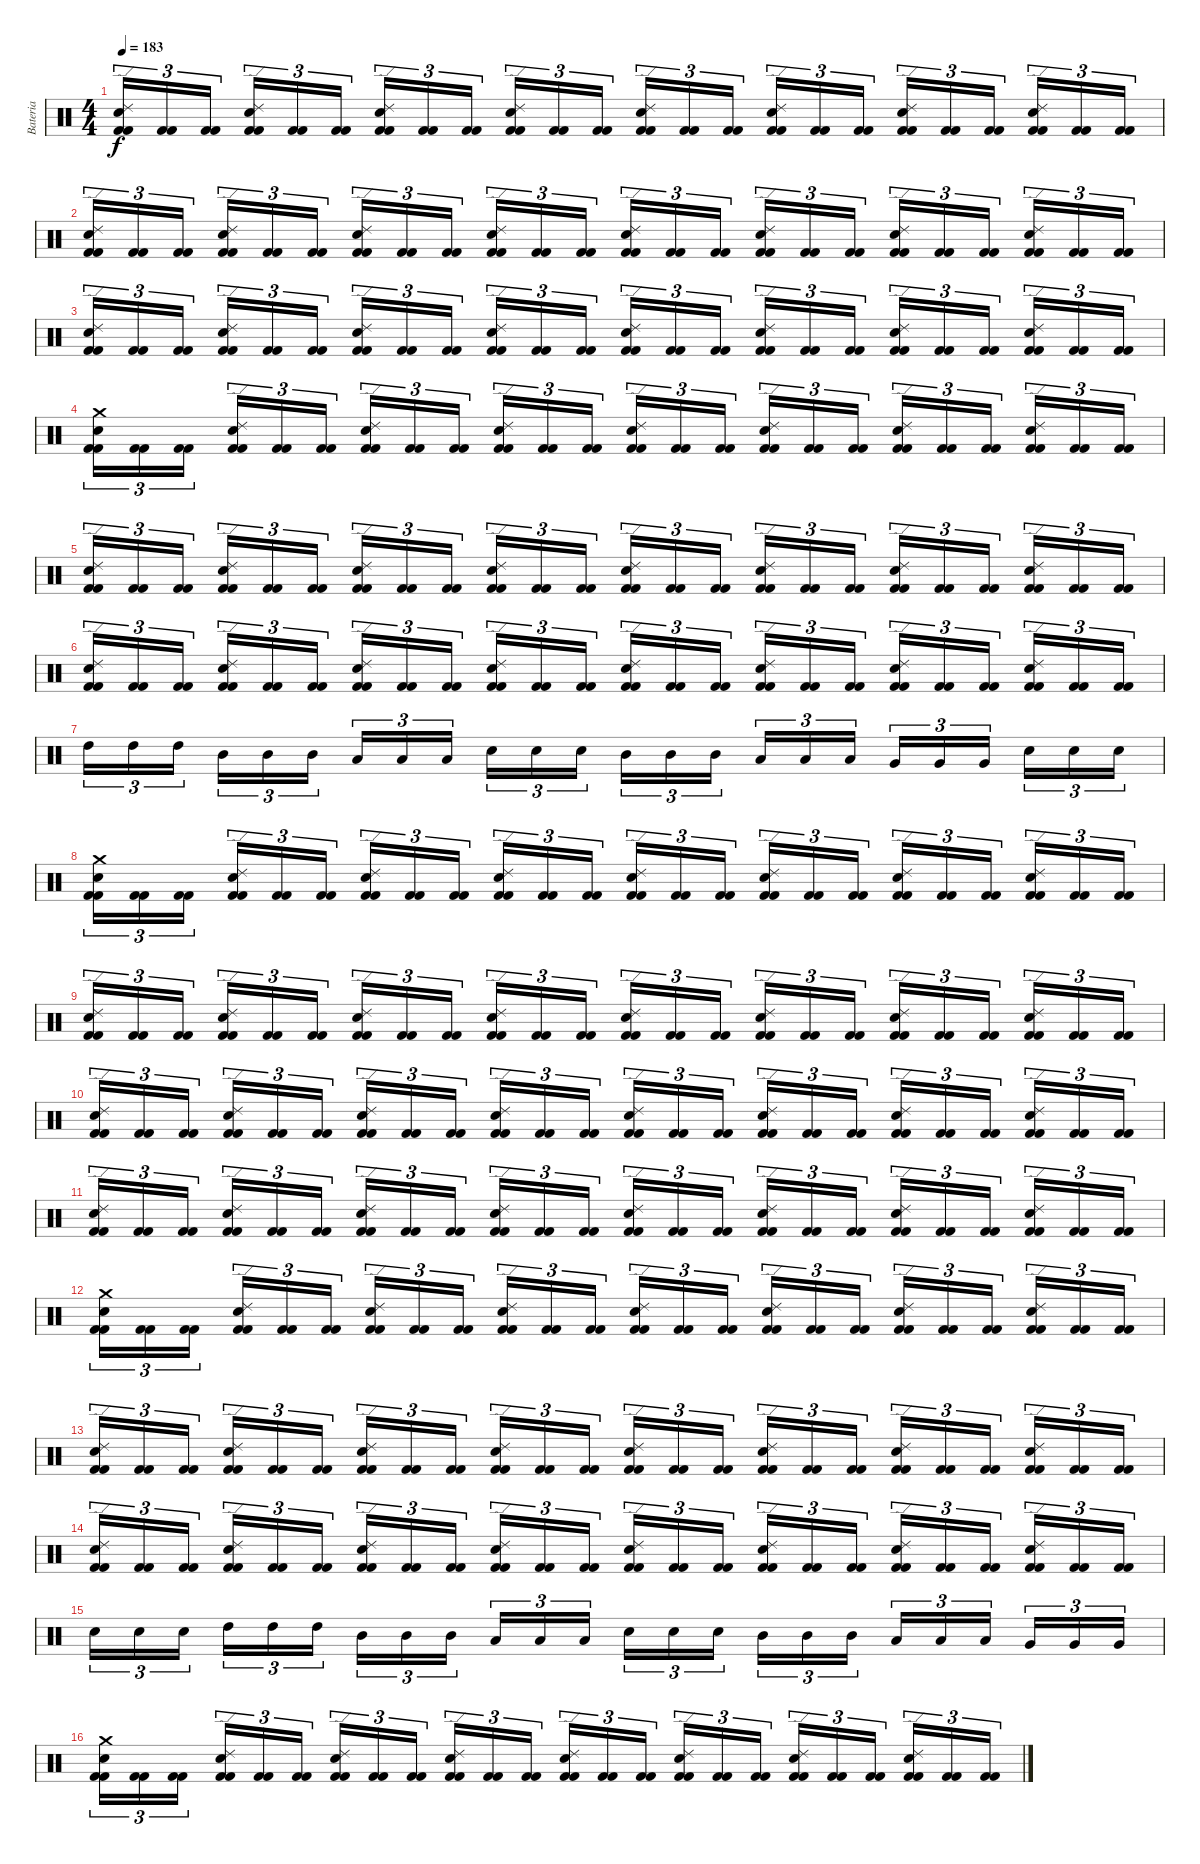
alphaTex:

\track ("Bateria" "Bateria") {instrument percussion}
\staff {score}
\articulation defaults
\ts (4 4)
\tempo 183
\clef neutral
\ks c
("Kick (hit) 2" "Kick (hit) 2" "Snare (hit) 2" "Ride (edge) 2").16{tu (3 2) dy f} ("Kick (hit) 2" "Kick (hit) 2").16{tu (3 2)} ("Kick (hit) 2" "Kick (hit) 2").16{tu (3 2)} ("Kick (hit) 2" "Kick (hit) 2" "Snare (hit) 2" "Ride (edge) 2").16{tu (3 2)} ("Kick (hit) 2" "Kick (hit) 2").16{tu (3 2)} ("Kick (hit) 2" "Kick (hit) 2").16{tu (3 2)} ("Kick (hit) 2" "Kick (hit) 2" "Snare (hit) 2" "Ride (edge) 2").16{tu (3 2)} ("Kick (hit) 2" "Kick (hit) 2").16{tu (3 2)} ("Kick (hit) 2" "Kick (hit) 2").16{tu (3 2)} ("Kick (hit) 2" "Kick (hit) 2" "Snare (hit) 2" "Ride (edge) 2").16{tu (3 2)} ("Kick (hit) 2" "Kick (hit) 2").16{tu (3 2)} ("Kick (hit) 2" "Kick (hit) 2").16{tu (3 2)} ("Kick (hit) 2" "Kick (hit) 2" "Snare (hit) 2" "Ride (edge) 2").16{tu (3 2)} ("Kick (hit) 2" "Kick (hit) 2").16{tu (3 2)} ("Kick (hit) 2" "Kick (hit) 2").16{tu (3 2)} ("Kick (hit) 2" "Kick (hit) 2" "Snare (hit) 2" "Ride (edge) 2").16{tu (3 2)} ("Kick (hit) 2" "Kick (hit) 2").16{tu (3 2)} ("Kick (hit) 2" "Kick (hit) 2").16{tu (3 2)} ("Kick (hit) 2" "Kick (hit) 2" "Snare (hit) 2" "Ride (edge) 2").16{tu (3 2)} ("Kick (hit) 2" "Kick (hit) 2").16{tu (3 2)} ("Kick (hit) 2" "Kick (hit) 2").16{tu (3 2)} ("Kick (hit) 2" "Kick (hit) 2" "Snare (hit) 2" "Ride (edge) 2").16{tu (3 2)} ("Kick (hit) 2" "Kick (hit) 2").16{tu (3 2)} ("Kick (hit) 2" "Kick (hit) 2").16{tu (3 2)} |
("Kick (hit) 2" "Kick (hit) 2" "Snare (hit) 2" "Ride (edge) 2").16{tu (3 2)} ("Kick (hit) 2" "Kick (hit) 2").16{tu (3 2)} ("Kick (hit) 2" "Kick (hit) 2").16{tu (3 2)} ("Kick (hit) 2" "Kick (hit) 2" "Snare (hit) 2" "Ride (edge) 2").16{tu (3 2)} ("Kick (hit) 2" "Kick (hit) 2").16{tu (3 2)} ("Kick (hit) 2" "Kick (hit) 2").16{tu (3 2)} ("Kick (hit) 2" "Kick (hit) 2" "Snare (hit) 2" "Ride (edge) 2").16{tu (3 2)} ("Kick (hit) 2" "Kick (hit) 2").16{tu (3 2)} ("Kick (hit) 2" "Kick (hit) 2").16{tu (3 2)} ("Kick (hit) 2" "Kick (hit) 2" "Snare (hit) 2" "Ride (edge) 2").16{tu (3 2)} ("Kick (hit) 2" "Kick (hit) 2").16{tu (3 2)} ("Kick (hit) 2" "Kick (hit) 2").16{tu (3 2)} ("Kick (hit) 2" "Kick (hit) 2" "Snare (hit) 2" "Ride (edge) 2").16{tu (3 2)} ("Kick (hit) 2" "Kick (hit) 2").16{tu (3 2)} ("Kick (hit) 2" "Kick (hit) 2").16{tu (3 2)} ("Kick (hit) 2" "Kick (hit) 2" "Snare (hit) 2" "Ride (edge) 2").16{tu (3 2)} ("Kick (hit) 2" "Kick (hit) 2").16{tu (3 2)} ("Kick (hit) 2" "Kick (hit) 2").16{tu (3 2)} ("Kick (hit) 2" "Kick (hit) 2" "Snare (hit) 2" "Ride (edge) 2").16{tu (3 2)} ("Kick (hit) 2" "Kick (hit) 2").16{tu (3 2)} ("Kick (hit) 2" "Kick (hit) 2").16{tu (3 2)} ("Kick (hit) 2" "Kick (hit) 2" "Snare (hit) 2" "Ride (edge) 2").16{tu (3 2)} ("Kick (hit) 2" "Kick (hit) 2").16{tu (3 2)} ("Kick (hit) 2" "Kick (hit) 2").16{tu (3 2)} |
("Kick (hit) 2" "Kick (hit) 2" "Snare (hit) 2" "Ride (edge) 2").16{tu (3 2)} ("Kick (hit) 2" "Kick (hit) 2").16{tu (3 2)} ("Kick (hit) 2" "Kick (hit) 2").16{tu (3 2)} ("Kick (hit) 2" "Kick (hit) 2" "Snare (hit) 2" "Ride (edge) 2").16{tu (3 2)} ("Kick (hit) 2" "Kick (hit) 2").16{tu (3 2)} ("Kick (hit) 2" "Kick (hit) 2").16{tu (3 2)} ("Kick (hit) 2" "Kick (hit) 2" "Snare (hit) 2" "Ride (edge) 2").16{tu (3 2)} ("Kick (hit) 2" "Kick (hit) 2").16{tu (3 2)} ("Kick (hit) 2" "Kick (hit) 2").16{tu (3 2)} ("Kick (hit) 2" "Kick (hit) 2" "Snare (hit) 2" "Ride (edge) 2").16{tu (3 2)} ("Kick (hit) 2" "Kick (hit) 2").16{tu (3 2)} ("Kick (hit) 2" "Kick (hit) 2").16{tu (3 2)} ("Kick (hit) 2" "Kick (hit) 2" "Snare (hit) 2" "Ride (edge) 2").16{tu (3 2)} ("Kick (hit) 2" "Kick (hit) 2").16{tu (3 2)} ("Kick (hit) 2" "Kick (hit) 2").16{tu (3 2)} ("Kick (hit) 2" "Kick (hit) 2" "Snare (hit) 2" "Ride (edge) 2").16{tu (3 2)} ("Kick (hit) 2" "Kick (hit) 2").16{tu (3 2)} ("Kick (hit) 2" "Kick (hit) 2").16{tu (3 2)} ("Kick (hit) 2" "Kick (hit) 2" "Snare (hit) 2" "Ride (edge) 2").16{tu (3 2)} ("Kick (hit) 2" "Kick (hit) 2").16{tu (3 2)} ("Kick (hit) 2" "Kick (hit) 2").16{tu (3 2)} ("Kick (hit) 2" "Kick (hit) 2" "Snare (hit) 2" "Ride (edge) 2").16{tu (3 2)} ("Kick (hit) 2" "Kick (hit) 2").16{tu (3 2)} ("Kick (hit) 2" "Kick (hit) 2").16{tu (3 2)} |
("Kick (hit) 2" "Kick (hit) 2" "Snare (hit) 2" "Crash medium (hit)").16{tu (3 2)} ("Kick (hit) 2" "Kick (hit) 2").16{tu (3 2)} ("Kick (hit) 2" "Kick (hit) 2").16{tu (3 2)} ("Kick (hit) 2" "Kick (hit) 2" "Snare (hit) 2" "Ride (edge) 2").16{tu (3 2)} ("Kick (hit) 2" "Kick (hit) 2").16{tu (3 2)} ("Kick (hit) 2" "Kick (hit) 2").16{tu (3 2)} ("Kick (hit) 2" "Kick (hit) 2" "Snare (hit) 2" "Ride (edge) 2").16{tu (3 2)} ("Kick (hit) 2" "Kick (hit) 2").16{tu (3 2)} ("Kick (hit) 2" "Kick (hit) 2").16{tu (3 2)} ("Kick (hit) 2" "Kick (hit) 2" "Snare (hit) 2" "Ride (edge) 2").16{tu (3 2)} ("Kick (hit) 2" "Kick (hit) 2").16{tu (3 2)} ("Kick (hit) 2" "Kick (hit) 2").16{tu (3 2)} ("Kick (hit) 2" "Kick (hit) 2" "Snare (hit) 2" "Ride (edge) 2").16{tu (3 2)} ("Kick (hit) 2" "Kick (hit) 2").16{tu (3 2)} ("Kick (hit) 2" "Kick (hit) 2").16{tu (3 2)} ("Kick (hit) 2" "Kick (hit) 2" "Snare (hit) 2" "Ride (edge) 2").16{tu (3 2)} ("Kick (hit) 2" "Kick (hit) 2").16{tu (3 2)} ("Kick (hit) 2" "Kick (hit) 2").16{tu (3 2)} ("Kick (hit) 2" "Kick (hit) 2" "Snare (hit) 2" "Ride (edge) 2").16{tu (3 2)} ("Kick (hit) 2" "Kick (hit) 2").16{tu (3 2)} ("Kick (hit) 2" "Kick (hit) 2").16{tu (3 2)} ("Kick (hit) 2" "Kick (hit) 2" "Snare (hit) 2" "Ride (edge) 2").16{tu (3 2)} ("Kick (hit) 2" "Kick (hit) 2").16{tu (3 2)} ("Kick (hit) 2" "Kick (hit) 2").16{tu (3 2)} |
("Kick (hit) 2" "Kick (hit) 2" "Snare (hit) 2" "Ride (edge) 2").16{tu (3 2)} ("Kick (hit) 2" "Kick (hit) 2").16{tu (3 2)} ("Kick (hit) 2" "Kick (hit) 2").16{tu (3 2)} ("Kick (hit) 2" "Kick (hit) 2" "Snare (hit) 2" "Ride (edge) 2").16{tu (3 2)} ("Kick (hit) 2" "Kick (hit) 2").16{tu (3 2)} ("Kick (hit) 2" "Kick (hit) 2").16{tu (3 2)} ("Kick (hit) 2" "Kick (hit) 2" "Snare (hit) 2" "Ride (edge) 2").16{tu (3 2)} ("Kick (hit) 2" "Kick (hit) 2").16{tu (3 2)} ("Kick (hit) 2" "Kick (hit) 2").16{tu (3 2)} ("Kick (hit) 2" "Kick (hit) 2" "Snare (hit) 2" "Ride (edge) 2").16{tu (3 2)} ("Kick (hit) 2" "Kick (hit) 2").16{tu (3 2)} ("Kick (hit) 2" "Kick (hit) 2").16{tu (3 2)} ("Kick (hit) 2" "Kick (hit) 2" "Snare (hit) 2" "Ride (edge) 2").16{tu (3 2)} ("Kick (hit) 2" "Kick (hit) 2").16{tu (3 2)} ("Kick (hit) 2" "Kick (hit) 2").16{tu (3 2)} ("Kick (hit) 2" "Kick (hit) 2" "Snare (hit) 2" "Ride (edge) 2").16{tu (3 2)} ("Kick (hit) 2" "Kick (hit) 2").16{tu (3 2)} ("Kick (hit) 2" "Kick (hit) 2").16{tu (3 2)} ("Kick (hit) 2" "Kick (hit) 2" "Snare (hit) 2" "Ride (edge) 2").16{tu (3 2)} ("Kick (hit) 2" "Kick (hit) 2").16{tu (3 2)} ("Kick (hit) 2" "Kick (hit) 2").16{tu (3 2)} ("Kick (hit) 2" "Kick (hit) 2" "Snare (hit) 2" "Ride (edge) 2").16{tu (3 2)} ("Kick (hit) 2" "Kick (hit) 2").16{tu (3 2)} ("Kick (hit) 2" "Kick (hit) 2").16{tu (3 2)} |
("Kick (hit) 2" "Kick (hit) 2" "Snare (hit) 2" "Ride (edge) 2").16{tu (3 2)} ("Kick (hit) 2" "Kick (hit) 2").16{tu (3 2)} ("Kick (hit) 2" "Kick (hit) 2").16{tu (3 2)} ("Kick (hit) 2" "Kick (hit) 2" "Snare (hit) 2" "Ride (edge) 2").16{tu (3 2)} ("Kick (hit) 2" "Kick (hit) 2").16{tu (3 2)} ("Kick (hit) 2" "Kick (hit) 2").16{tu (3 2)} ("Kick (hit) 2" "Kick (hit) 2" "Snare (hit) 2" "Ride (edge) 2").16{tu (3 2)} ("Kick (hit) 2" "Kick (hit) 2").16{tu (3 2)} ("Kick (hit) 2" "Kick (hit) 2").16{tu (3 2)} ("Kick (hit) 2" "Kick (hit) 2" "Snare (hit) 2" "Ride (edge) 2").16{tu (3 2)} ("Kick (hit) 2" "Kick (hit) 2").16{tu (3 2)} ("Kick (hit) 2" "Kick (hit) 2").16{tu (3 2)} ("Kick (hit) 2" "Kick (hit) 2" "Snare (hit) 2" "Ride (edge) 2").16{tu (3 2)} ("Kick (hit) 2" "Kick (hit) 2").16{tu (3 2)} ("Kick (hit) 2" "Kick (hit) 2").16{tu (3 2)} ("Kick (hit) 2" "Kick (hit) 2" "Snare (hit) 2" "Ride (edge) 2").16{tu (3 2)} ("Kick (hit) 2" "Kick (hit) 2").16{tu (3 2)} ("Kick (hit) 2" "Kick (hit) 2").16{tu (3 2)} ("Kick (hit) 2" "Kick (hit) 2" "Snare (hit) 2" "Ride (edge) 2").16{tu (3 2)} ("Kick (hit) 2" "Kick (hit) 2").16{tu (3 2)} ("Kick (hit) 2" "Kick (hit) 2").16{tu (3 2)} ("Kick (hit) 2" "Kick (hit) 2" "Snare (hit) 2" "Ride (edge) 2").16{tu (3 2)} ("Kick (hit) 2" "Kick (hit) 2").16{tu (3 2)} ("Kick (hit) 2" "Kick (hit) 2").16{tu (3 2)} |
"High Tom (hit)".16{tu (3 2)} "High Tom (hit)".16{tu (3 2)} "High Tom (hit)".16{tu (3 2)} "Mid Tom (hit)".16{tu (3 2)} "Mid Tom (hit)".16{tu (3 2)} "Mid Tom (hit)".16{tu (3 2)} "Low Tom (hit)".16{tu (3 2)} "Low Tom (hit)".16{tu (3 2)} "Low Tom (hit)".16{tu (3 2)} "Snare (hit) 2".16{tu (3 2)} "Snare (hit) 2".16{tu (3 2)} "Snare (hit) 2".16{tu (3 2)} "Mid Tom (hit)".16{tu (3 2)} "Mid Tom (hit)".16{tu (3 2)} "Mid Tom (hit)".16{tu (3 2)} "Low Tom (hit)".16{tu (3 2)} "Low Tom (hit)".16{tu (3 2)} "Low Tom (hit)".16{tu (3 2)} "Very Low Tom (hit)".16{tu (3 2)} "Very Low Tom (hit)".16{tu (3 2)} "Very Low Tom (hit)".16{tu (3 2)} "Snare (hit) 2".16{tu (3 2)} "Snare (hit) 2".16{tu (3 2)} "Snare (hit) 2".16{tu (3 2)} |
("Kick (hit) 2" "Kick (hit) 2" "Snare (hit) 2" "Crash medium (hit)").16{tu (3 2)} ("Kick (hit) 2" "Kick (hit) 2").16{tu (3 2)} ("Kick (hit) 2" "Kick (hit) 2").16{tu (3 2)} ("Kick (hit) 2" "Kick (hit) 2" "Snare (hit) 2" "Ride (edge) 2").16{tu (3 2)} ("Kick (hit) 2" "Kick (hit) 2").16{tu (3 2)} ("Kick (hit) 2" "Kick (hit) 2").16{tu (3 2)} ("Kick (hit) 2" "Kick (hit) 2" "Snare (hit) 2" "Ride (edge) 2").16{tu (3 2)} ("Kick (hit) 2" "Kick (hit) 2").16{tu (3 2)} ("Kick (hit) 2" "Kick (hit) 2").16{tu (3 2)} ("Kick (hit) 2" "Kick (hit) 2" "Snare (hit) 2" "Ride (edge) 2").16{tu (3 2)} ("Kick (hit) 2" "Kick (hit) 2").16{tu (3 2)} ("Kick (hit) 2" "Kick (hit) 2").16{tu (3 2)} ("Kick (hit) 2" "Kick (hit) 2" "Snare (hit) 2" "Ride (edge) 2").16{tu (3 2)} ("Kick (hit) 2" "Kick (hit) 2").16{tu (3 2)} ("Kick (hit) 2" "Kick (hit) 2").16{tu (3 2)} ("Kick (hit) 2" "Kick (hit) 2" "Snare (hit) 2" "Ride (edge) 2").16{tu (3 2)} ("Kick (hit) 2" "Kick (hit) 2").16{tu (3 2)} ("Kick (hit) 2" "Kick (hit) 2").16{tu (3 2)} ("Kick (hit) 2" "Kick (hit) 2" "Snare (hit) 2" "Ride (edge) 2").16{tu (3 2)} ("Kick (hit) 2" "Kick (hit) 2").16{tu (3 2)} ("Kick (hit) 2" "Kick (hit) 2").16{tu (3 2)} ("Kick (hit) 2" "Kick (hit) 2" "Snare (hit) 2" "Ride (edge) 2").16{tu (3 2)} ("Kick (hit) 2" "Kick (hit) 2").16{tu (3 2)} ("Kick (hit) 2" "Kick (hit) 2").16{tu (3 2)} |
("Kick (hit) 2" "Kick (hit) 2" "Snare (hit) 2" "Ride (edge) 2").16{tu (3 2)} ("Kick (hit) 2" "Kick (hit) 2").16{tu (3 2)} ("Kick (hit) 2" "Kick (hit) 2").16{tu (3 2)} ("Kick (hit) 2" "Kick (hit) 2" "Snare (hit) 2" "Ride (edge) 2").16{tu (3 2)} ("Kick (hit) 2" "Kick (hit) 2").16{tu (3 2)} ("Kick (hit) 2" "Kick (hit) 2").16{tu (3 2)} ("Kick (hit) 2" "Kick (hit) 2" "Snare (hit) 2" "Ride (edge) 2").16{tu (3 2)} ("Kick (hit) 2" "Kick (hit) 2").16{tu (3 2)} ("Kick (hit) 2" "Kick (hit) 2").16{tu (3 2)} ("Kick (hit) 2" "Kick (hit) 2" "Snare (hit) 2" "Ride (edge) 2").16{tu (3 2)} ("Kick (hit) 2" "Kick (hit) 2").16{tu (3 2)} ("Kick (hit) 2" "Kick (hit) 2").16{tu (3 2)} ("Kick (hit) 2" "Kick (hit) 2" "Snare (hit) 2" "Ride (edge) 2").16{tu (3 2)} ("Kick (hit) 2" "Kick (hit) 2").16{tu (3 2)} ("Kick (hit) 2" "Kick (hit) 2").16{tu (3 2)} ("Kick (hit) 2" "Kick (hit) 2" "Snare (hit) 2" "Ride (edge) 2").16{tu (3 2)} ("Kick (hit) 2" "Kick (hit) 2").16{tu (3 2)} ("Kick (hit) 2" "Kick (hit) 2").16{tu (3 2)} ("Kick (hit) 2" "Kick (hit) 2" "Snare (hit) 2" "Ride (edge) 2").16{tu (3 2)} ("Kick (hit) 2" "Kick (hit) 2").16{tu (3 2)} ("Kick (hit) 2" "Kick (hit) 2").16{tu (3 2)} ("Kick (hit) 2" "Kick (hit) 2" "Snare (hit) 2" "Ride (edge) 2").16{tu (3 2)} ("Kick (hit) 2" "Kick (hit) 2").16{tu (3 2)} ("Kick (hit) 2" "Kick (hit) 2").16{tu (3 2)} |
("Kick (hit) 2" "Kick (hit) 2" "Snare (hit) 2" "Ride (edge) 2").16{tu (3 2)} ("Kick (hit) 2" "Kick (hit) 2").16{tu (3 2)} ("Kick (hit) 2" "Kick (hit) 2").16{tu (3 2)} ("Kick (hit) 2" "Kick (hit) 2" "Snare (hit) 2" "Ride (edge) 2").16{tu (3 2)} ("Kick (hit) 2" "Kick (hit) 2").16{tu (3 2)} ("Kick (hit) 2" "Kick (hit) 2").16{tu (3 2)} ("Kick (hit) 2" "Kick (hit) 2" "Snare (hit) 2" "Ride (edge) 2").16{tu (3 2)} ("Kick (hit) 2" "Kick (hit) 2").16{tu (3 2)} ("Kick (hit) 2" "Kick (hit) 2").16{tu (3 2)} ("Kick (hit) 2" "Kick (hit) 2" "Snare (hit) 2" "Ride (edge) 2").16{tu (3 2)} ("Kick (hit) 2" "Kick (hit) 2").16{tu (3 2)} ("Kick (hit) 2" "Kick (hit) 2").16{tu (3 2)} ("Kick (hit) 2" "Kick (hit) 2" "Snare (hit) 2" "Ride (edge) 2").16{tu (3 2)} ("Kick (hit) 2" "Kick (hit) 2").16{tu (3 2)} ("Kick (hit) 2" "Kick (hit) 2").16{tu (3 2)} ("Kick (hit) 2" "Kick (hit) 2" "Snare (hit) 2" "Ride (edge) 2").16{tu (3 2)} ("Kick (hit) 2" "Kick (hit) 2").16{tu (3 2)} ("Kick (hit) 2" "Kick (hit) 2").16{tu (3 2)} ("Kick (hit) 2" "Kick (hit) 2" "Snare (hit) 2" "Ride (edge) 2").16{tu (3 2)} ("Kick (hit) 2" "Kick (hit) 2").16{tu (3 2)} ("Kick (hit) 2" "Kick (hit) 2").16{tu (3 2)} ("Kick (hit) 2" "Kick (hit) 2" "Snare (hit) 2" "Ride (edge) 2").16{tu (3 2)} ("Kick (hit) 2" "Kick (hit) 2").16{tu (3 2)} ("Kick (hit) 2" "Kick (hit) 2").16{tu (3 2)} |
("Kick (hit) 2" "Kick (hit) 2" "Snare (hit) 2" "Ride (edge) 2").16{tu (3 2)} ("Kick (hit) 2" "Kick (hit) 2").16{tu (3 2)} ("Kick (hit) 2" "Kick (hit) 2").16{tu (3 2)} ("Kick (hit) 2" "Kick (hit) 2" "Snare (hit) 2" "Ride (edge) 2").16{tu (3 2)} ("Kick (hit) 2" "Kick (hit) 2").16{tu (3 2)} ("Kick (hit) 2" "Kick (hit) 2").16{tu (3 2)} ("Kick (hit) 2" "Kick (hit) 2" "Snare (hit) 2" "Ride (edge) 2").16{tu (3 2)} ("Kick (hit) 2" "Kick (hit) 2").16{tu (3 2)} ("Kick (hit) 2" "Kick (hit) 2").16{tu (3 2)} ("Kick (hit) 2" "Kick (hit) 2" "Snare (hit) 2" "Ride (edge) 2").16{tu (3 2)} ("Kick (hit) 2" "Kick (hit) 2").16{tu (3 2)} ("Kick (hit) 2" "Kick (hit) 2").16{tu (3 2)} ("Kick (hit) 2" "Kick (hit) 2" "Snare (hit) 2" "Ride (edge) 2").16{tu (3 2)} ("Kick (hit) 2" "Kick (hit) 2").16{tu (3 2)} ("Kick (hit) 2" "Kick (hit) 2").16{tu (3 2)} ("Kick (hit) 2" "Kick (hit) 2" "Snare (hit) 2" "Ride (edge) 2").16{tu (3 2)} ("Kick (hit) 2" "Kick (hit) 2").16{tu (3 2)} ("Kick (hit) 2" "Kick (hit) 2").16{tu (3 2)} ("Kick (hit) 2" "Kick (hit) 2" "Snare (hit) 2" "Ride (edge) 2").16{tu (3 2)} ("Kick (hit) 2" "Kick (hit) 2").16{tu (3 2)} ("Kick (hit) 2" "Kick (hit) 2").16{tu (3 2)} ("Kick (hit) 2" "Kick (hit) 2" "Snare (hit) 2" "Ride (edge) 2").16{tu (3 2)} ("Kick (hit) 2" "Kick (hit) 2").16{tu (3 2)} ("Kick (hit) 2" "Kick (hit) 2").16{tu (3 2)} |
("Kick (hit) 2" "Kick (hit) 2" "Snare (hit) 2" "Crash medium (hit)").16{tu (3 2)} ("Kick (hit) 2" "Kick (hit) 2").16{tu (3 2)} ("Kick (hit) 2" "Kick (hit) 2").16{tu (3 2)} ("Kick (hit) 2" "Kick (hit) 2" "Snare (hit) 2" "Ride (edge) 2").16{tu (3 2)} ("Kick (hit) 2" "Kick (hit) 2").16{tu (3 2)} ("Kick (hit) 2" "Kick (hit) 2").16{tu (3 2)} ("Kick (hit) 2" "Kick (hit) 2" "Snare (hit) 2" "Ride (edge) 2").16{tu (3 2)} ("Kick (hit) 2" "Kick (hit) 2").16{tu (3 2)} ("Kick (hit) 2" "Kick (hit) 2").16{tu (3 2)} ("Kick (hit) 2" "Kick (hit) 2" "Snare (hit) 2" "Ride (edge) 2").16{tu (3 2)} ("Kick (hit) 2" "Kick (hit) 2").16{tu (3 2)} ("Kick (hit) 2" "Kick (hit) 2").16{tu (3 2)} ("Kick (hit) 2" "Kick (hit) 2" "Snare (hit) 2" "Ride (edge) 2").16{tu (3 2)} ("Kick (hit) 2" "Kick (hit) 2").16{tu (3 2)} ("Kick (hit) 2" "Kick (hit) 2").16{tu (3 2)} ("Kick (hit) 2" "Kick (hit) 2" "Snare (hit) 2" "Ride (edge) 2").16{tu (3 2)} ("Kick (hit) 2" "Kick (hit) 2").16{tu (3 2)} ("Kick (hit) 2" "Kick (hit) 2").16{tu (3 2)} ("Kick (hit) 2" "Kick (hit) 2" "Snare (hit) 2" "Ride (edge) 2").16{tu (3 2)} ("Kick (hit) 2" "Kick (hit) 2").16{tu (3 2)} ("Kick (hit) 2" "Kick (hit) 2").16{tu (3 2)} ("Kick (hit) 2" "Kick (hit) 2" "Snare (hit) 2" "Ride (edge) 2").16{tu (3 2)} ("Kick (hit) 2" "Kick (hit) 2").16{tu (3 2)} ("Kick (hit) 2" "Kick (hit) 2").16{tu (3 2)} |
("Kick (hit) 2" "Kick (hit) 2" "Snare (hit) 2" "Ride (edge) 2").16{tu (3 2)} ("Kick (hit) 2" "Kick (hit) 2").16{tu (3 2)} ("Kick (hit) 2" "Kick (hit) 2").16{tu (3 2)} ("Kick (hit) 2" "Kick (hit) 2" "Snare (hit) 2" "Ride (edge) 2").16{tu (3 2)} ("Kick (hit) 2" "Kick (hit) 2").16{tu (3 2)} ("Kick (hit) 2" "Kick (hit) 2").16{tu (3 2)} ("Kick (hit) 2" "Kick (hit) 2" "Snare (hit) 2" "Ride (edge) 2").16{tu (3 2)} ("Kick (hit) 2" "Kick (hit) 2").16{tu (3 2)} ("Kick (hit) 2" "Kick (hit) 2").16{tu (3 2)} ("Kick (hit) 2" "Kick (hit) 2" "Snare (hit) 2" "Ride (edge) 2").16{tu (3 2)} ("Kick (hit) 2" "Kick (hit) 2").16{tu (3 2)} ("Kick (hit) 2" "Kick (hit) 2").16{tu (3 2)} ("Kick (hit) 2" "Kick (hit) 2" "Snare (hit) 2" "Ride (edge) 2").16{tu (3 2)} ("Kick (hit) 2" "Kick (hit) 2").16{tu (3 2)} ("Kick (hit) 2" "Kick (hit) 2").16{tu (3 2)} ("Kick (hit) 2" "Kick (hit) 2" "Snare (hit) 2" "Ride (edge) 2").16{tu (3 2)} ("Kick (hit) 2" "Kick (hit) 2").16{tu (3 2)} ("Kick (hit) 2" "Kick (hit) 2").16{tu (3 2)} ("Kick (hit) 2" "Kick (hit) 2" "Snare (hit) 2" "Ride (edge) 2").16{tu (3 2)} ("Kick (hit) 2" "Kick (hit) 2").16{tu (3 2)} ("Kick (hit) 2" "Kick (hit) 2").16{tu (3 2)} ("Kick (hit) 2" "Kick (hit) 2" "Snare (hit) 2" "Ride (edge) 2").16{tu (3 2)} ("Kick (hit) 2" "Kick (hit) 2").16{tu (3 2)} ("Kick (hit) 2" "Kick (hit) 2").16{tu (3 2)} |
("Kick (hit) 2" "Kick (hit) 2" "Snare (hit) 2" "Ride (edge) 2").16{tu (3 2)} ("Kick (hit) 2" "Kick (hit) 2").16{tu (3 2)} ("Kick (hit) 2" "Kick (hit) 2").16{tu (3 2)} ("Kick (hit) 2" "Kick (hit) 2" "Snare (hit) 2" "Ride (edge) 2").16{tu (3 2)} ("Kick (hit) 2" "Kick (hit) 2").16{tu (3 2)} ("Kick (hit) 2" "Kick (hit) 2").16{tu (3 2)} ("Kick (hit) 2" "Kick (hit) 2" "Snare (hit) 2" "Ride (edge) 2").16{tu (3 2)} ("Kick (hit) 2" "Kick (hit) 2").16{tu (3 2)} ("Kick (hit) 2" "Kick (hit) 2").16{tu (3 2)} ("Kick (hit) 2" "Kick (hit) 2" "Snare (hit) 2" "Ride (edge) 2").16{tu (3 2)} ("Kick (hit) 2" "Kick (hit) 2").16{tu (3 2)} ("Kick (hit) 2" "Kick (hit) 2").16{tu (3 2)} ("Kick (hit) 2" "Kick (hit) 2" "Snare (hit) 2" "Ride (edge) 2").16{tu (3 2)} ("Kick (hit) 2" "Kick (hit) 2").16{tu (3 2)} ("Kick (hit) 2" "Kick (hit) 2").16{tu (3 2)} ("Kick (hit) 2" "Kick (hit) 2" "Snare (hit) 2" "Ride (edge) 2").16{tu (3 2)} ("Kick (hit) 2" "Kick (hit) 2").16{tu (3 2)} ("Kick (hit) 2" "Kick (hit) 2").16{tu (3 2)} ("Kick (hit) 2" "Kick (hit) 2" "Snare (hit) 2" "Ride (edge) 2").16{tu (3 2)} ("Kick (hit) 2" "Kick (hit) 2").16{tu (3 2)} ("Kick (hit) 2" "Kick (hit) 2").16{tu (3 2)} ("Kick (hit) 2" "Kick (hit) 2" "Snare (hit) 2" "Ride (edge) 2").16{tu (3 2)} ("Kick (hit) 2" "Kick (hit) 2").16{tu (3 2)} ("Kick (hit) 2" "Kick (hit) 2").16{tu (3 2)} |
"Snare (hit) 2".16{tu (3 2)} "Snare (hit) 2".16{tu (3 2)} "Snare (hit) 2".16{tu (3 2)} "High Tom (hit)".16{tu (3 2)} "High Tom (hit)".16{tu (3 2)} "High Tom (hit)".16{tu (3 2)} "Mid Tom (hit)".16{tu (3 2)} "Mid Tom (hit)".16{tu (3 2)} "Mid Tom (hit)".16{tu (3 2)} "Low Tom (hit)".16{tu (3 2)} "Low Tom (hit)".16{tu (3 2)} "Low Tom (hit)".16{tu (3 2)} "Snare (hit) 2".16{tu (3 2)} "Snare (hit) 2".16{tu (3 2)} "Snare (hit) 2".16{tu (3 2)} "Mid Tom (hit)".16{tu (3 2)} "Mid Tom (hit)".16{tu (3 2)} "Mid Tom (hit)".16{tu (3 2)} "Low Tom (hit)".16{tu (3 2)} "Low Tom (hit)".16{tu (3 2)} "Low Tom (hit)".16{tu (3 2)} "Very Low Tom (hit)".16{tu (3 2)} "Very Low Tom (hit)".16{tu (3 2)} "Very Low Tom (hit)".16{tu (3 2)} |
("Kick (hit) 2" "Kick (hit) 2" "Snare (hit) 2" "Crash medium (hit)").16{tu (3 2)} ("Kick (hit) 2" "Kick (hit) 2").16{tu (3 2)} ("Kick (hit) 2" "Kick (hit) 2").16{tu (3 2)} ("Kick (hit) 2" "Kick (hit) 2" "Snare (hit) 2" "Ride (edge) 2").16{tu (3 2)} ("Kick (hit) 2" "Kick (hit) 2").16{tu (3 2)} ("Kick (hit) 2" "Kick (hit) 2").16{tu (3 2)} ("Kick (hit) 2" "Kick (hit) 2" "Snare (hit) 2" "Ride (edge) 2").16{tu (3 2)} ("Kick (hit) 2" "Kick (hit) 2").16{tu (3 2)} ("Kick (hit) 2" "Kick (hit) 2").16{tu (3 2)} ("Kick (hit) 2" "Kick (hit) 2" "Snare (hit) 2" "Ride (edge) 2").16{tu (3 2)} ("Kick (hit) 2" "Kick (hit) 2").16{tu (3 2)} ("Kick (hit) 2" "Kick (hit) 2").16{tu (3 2)} ("Kick (hit) 2" "Kick (hit) 2" "Snare (hit) 2" "Ride (edge) 2").16{tu (3 2)} ("Kick (hit) 2" "Kick (hit) 2").16{tu (3 2)} ("Kick (hit) 2" "Kick (hit) 2").16{tu (3 2)} ("Kick (hit) 2" "Kick (hit) 2" "Snare (hit) 2" "Ride (edge) 2").16{tu (3 2)} ("Kick (hit) 2" "Kick (hit) 2").16{tu (3 2)} ("Kick (hit) 2" "Kick (hit) 2").16{tu (3 2)} ("Kick (hit) 2" "Kick (hit) 2" "Snare (hit) 2" "Ride (edge) 2").16{tu (3 2)} ("Kick (hit) 2" "Kick (hit) 2").16{tu (3 2)} ("Kick (hit) 2" "Kick (hit) 2").16{tu (3 2)} ("Kick (hit) 2" "Kick (hit) 2" "Snare (hit) 2" "Ride (edge) 2").16{tu (3 2)} ("Kick (hit) 2" "Kick (hit) 2").16{tu (3 2)} ("Kick (hit) 2" "Kick (hit) 2").16{tu (3 2)}
